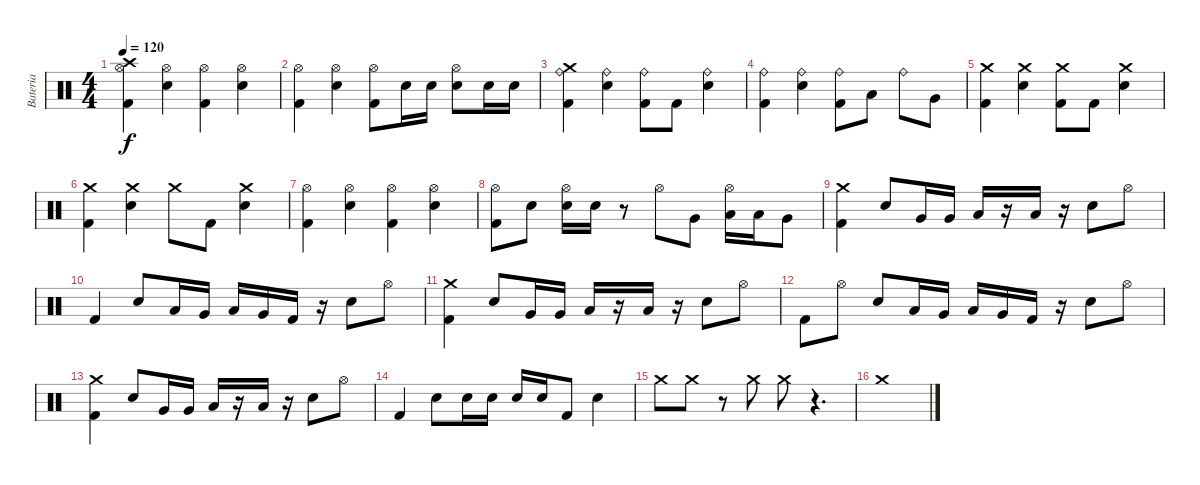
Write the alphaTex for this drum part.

\track ("Bateria" "Bateria") {instrument percussion}
\staff {score}
\articulation defaults
\ts (4 4)
\tempo 120
\clef neutral
\ks c
("Crash high (hit)" "Hi-Hat (open)" "Kick (hit) 2").4{dy f} ("Hi-Hat (open)" "Electric Snare (hit)").4 ("Hi-Hat (open)" "Kick (hit) 2").4 ("Hi-Hat (open)" "Electric Snare (hit)").4 |
("Hi-Hat (open)" "Kick (hit) 2").4 ("Hi-Hat (open)" "Electric Snare (hit)").4 ("Hi-Hat (open)" "Kick (hit) 2").8 "Electric Snare (hit)".16 "Electric Snare (hit)".16 ("Hi-Hat (open)" "Electric Snare (hit)").8 "Electric Snare (hit)".16 "Electric Snare (hit)".16 |
("Crash medium (hit)" "Ride (bell)" "Kick (hit) 2").4 ("Ride (bell)" "Electric Snare (hit)").4 ("Ride (bell)" "Kick (hit) 2").8 "Kick (hit) 2".8 ("Ride (bell)" "Electric Snare (hit)").4 |
("Ride (bell)" "Kick (hit) 2").4 ("Ride (bell)" "Electric Snare (hit)").4 ("Ride (bell)" "Kick (hit) 2").8 "Low Tom (hit)".8 "Ride (bell)".8 "Very Low Tom (hit)".8 |
("Crash medium (hit)" "Kick (hit) 2").4 ("Crash medium (hit)" "Electric Snare (hit)").4 ("Crash medium (hit)" "Kick (hit) 2").8 "Kick (hit) 2".8 ("Crash medium (hit)" "Electric Snare (hit)").4 |
("Crash medium (hit)" "Kick (hit) 2").4 ("Crash medium (hit)" "Electric Snare (hit)").4 "Crash medium (hit)".8 "Kick (hit) 2".8 ("Crash medium (hit)" "Electric Snare (hit)").4 |
("Hi-Hat (open)" "Kick (hit) 2").4 ("Hi-Hat (open)" "Electric Snare (hit)").4 ("Hi-Hat (open)" "Kick (hit) 2").4 ("Hi-Hat (open)" "Electric Snare (hit)").4 |
("Hi-Hat (open)" "Kick (hit) 2").8 "Electric Snare (hit)".8 ("Hi-Hat (open)" "Electric Snare (hit)").16 "Electric Snare (hit)".16 r.8 "Hi-Hat (open)".8 "Very Low Tom (hit)".8 ("Low Tom (hit)" "Hi-Hat (open)").16 "Low Tom (hit)".16 "Very Low Tom (hit)".8 |
("Crash medium (hit)" "Kick (hit) 2").4 "Electric Snare (hit)".8 "Very Low Tom (hit)".16 "Very Low Tom (hit)".16 "Low Floor Tom (hit)".16 r.16 "Low Floor Tom (hit)".16 r.16 "Electric Snare (hit)".8 "Hi-Hat (open)".8 |
"Kick (hit) 2".4 "Electric Snare (hit)".8 "Low Floor Tom (hit)".16 "Very Low Tom (hit)".16 "Low Floor Tom (hit)".16 "Very Low Tom (hit)".16 "Kick (hit) 2".16 r.16 "Electric Snare (hit)".8 "Hi-Hat (open)".8 |
("Crash medium (hit)" "Kick (hit) 2").4 "Electric Snare (hit)".8 "Very Low Tom (hit)".16 "Very Low Tom (hit)".16 "Low Floor Tom (hit)".16 r.16 "Low Floor Tom (hit)".16 r.16 "Electric Snare (hit)".8 "Hi-Hat (open)".8 |
"Kick (hit) 2".8 "Hi-Hat (open)".8 "Electric Snare (hit)".8 "Low Floor Tom (hit)".16 "Very Low Tom (hit)".16 "Low Floor Tom (hit)".16 "Very Low Tom (hit)".16 "Kick (hit) 2".16 r.16 "Electric Snare (hit)".8 "Hi-Hat (open)".8 |
("Crash medium (hit)" "Kick (hit) 2").4 "Electric Snare (hit)".8 "Very Low Tom (hit)".16 "Very Low Tom (hit)".16 "Low Floor Tom (hit)".16 r.16 "Low Floor Tom (hit)".16 r.16 "Electric Snare (hit)".8 "Hi-Hat (open)".8 |
"Kick (hit) 2".4 "Electric Snare (hit)".8 "Electric Snare (hit)".16 "Electric Snare (hit)".16 "Electric Snare (hit)".16 "Electric Snare (hit)".16 "Kick (hit) 2".8 "Electric Snare (hit)".4 |
"Crash medium (hit)".8 "Crash medium (hit)".8 r.8 "Crash medium (hit)".8 "Crash medium (hit)".8 r.4{d} |
"Crash medium (hit)".1
